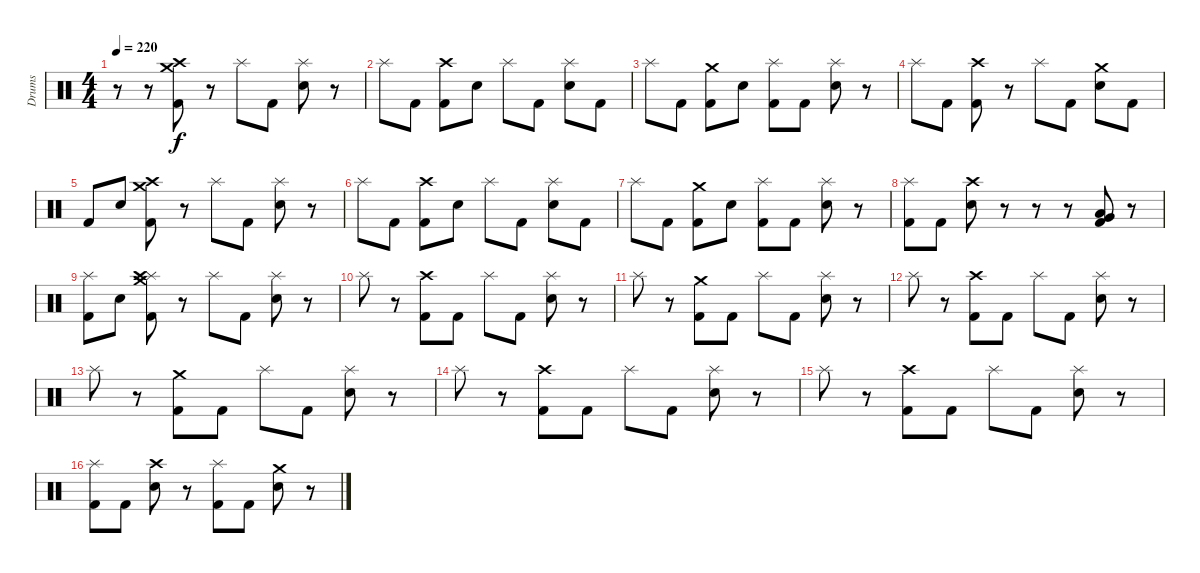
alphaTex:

\track ("Drums" "Drums") {instrument percussion}
\staff {score}
\articulation defaults
\ts (4 4)
\tempo 220
\clef neutral
\ks c
r.8{dy f} r.8 ("Crash high (hit)" "Crash medium (hit)" "Kick (hit) 2").8 r.8 "Splash (hit)".8 "Kick (hit) 2".8 ("Splash (hit)" "Electric Snare (hit)").8 r.8 |
"Splash (hit)".8 "Kick (hit) 2".8 ("Crash high (hit)" "Kick (hit) 2").8 "Electric Snare (hit)".8 "Splash (hit)".8 "Kick (hit) 2".8 ("Splash (hit)" "Electric Snare (hit)").8 "Kick (hit) 2".8 |
"Splash (hit)".8 "Kick (hit) 2".8 ("Crash medium (hit)" "Kick (hit) 2").8 "Electric Snare (hit)".8 ("Splash (hit)" "Kick (hit) 2").8 "Kick (hit) 2".8 ("Splash (hit)" "Electric Snare (hit)").8 r.8 |
"Splash (hit)".8 "Kick (hit) 2".8 ("Crash high (hit)" "Kick (hit) 2").8 r.8 "Splash (hit)".8 "Kick (hit) 2".8 ("Crash medium (hit)" "Electric Snare (hit)").8 "Kick (hit) 2".8 |
"Kick (hit) 2".8 "Electric Snare (hit)".8 ("Crash high (hit)" "Crash medium (hit)" "Kick (hit) 2").8 r.8 "Splash (hit)".8 "Kick (hit) 2".8 ("Splash (hit)" "Electric Snare (hit)").8 r.8 |
"Splash (hit)".8 "Kick (hit) 2".8 ("Crash high (hit)" "Kick (hit) 2").8 "Electric Snare (hit)".8 "Splash (hit)".8 "Kick (hit) 2".8 ("Splash (hit)" "Electric Snare (hit)").8 "Kick (hit) 2".8 |
"Splash (hit)".8 "Kick (hit) 2".8 ("Crash medium (hit)" "Kick (hit) 2").8 "Electric Snare (hit)".8 ("Splash (hit)" "Kick (hit) 2").8 "Kick (hit) 2".8 ("Splash (hit)" "Electric Snare (hit)").8 r.8 |
("Splash (hit)" "Kick (hit) 2").8 "Kick (hit) 2".8 ("Crash high (hit)" "Electric Snare (hit)").8 r.8 r.8 r.8 ("Very Low Tom (hit)" "Low Floor Tom (hit)" "Kick (hit) 2").8 r.8 |
("Splash (hit)" "Kick (hit) 2").8 "Electric Snare (hit)".8 ("Splash (hit)" "Crash high (hit)" "Crash medium (hit)" "Kick (hit) 2").8 r.8 "Splash (hit)".8 "Kick (hit) 2".8 ("Splash (hit)" "Electric Snare (hit)").8 r.8 |
"Splash (hit)".8 r.8 ("Crash high (hit)" "Kick (hit) 2").8 "Kick (hit) 2".8 "Splash (hit)".8 "Kick (hit) 2".8 ("Splash (hit)" "Electric Snare (hit)").8 r.8 |
"Splash (hit)".8 r.8 ("Crash medium (hit)" "Kick (hit) 2").8 "Kick (hit) 2".8 "Splash (hit)".8 "Kick (hit) 2".8 ("Splash (hit)" "Electric Snare (hit)").8 r.8 |
"Splash (hit)".8 r.8 ("Crash high (hit)" "Kick (hit) 2").8 "Kick (hit) 2".8 "Splash (hit)".8 "Kick (hit) 2".8 ("Splash (hit)" "Electric Snare (hit)").8 r.8 |
"Splash (hit)".8 r.8 ("Crash medium (hit)" "Kick (hit) 2").8 "Kick (hit) 2".8 "Splash (hit)".8 "Kick (hit) 2".8 ("Splash (hit)" "Electric Snare (hit)").8 r.8 |
"Splash (hit)".8 r.8 ("Crash high (hit)" "Kick (hit) 2").8 "Kick (hit) 2".8 "Splash (hit)".8 "Kick (hit) 2".8 ("Splash (hit)" "Electric Snare (hit)").8 r.8 |
"Splash (hit)".8 r.8 ("Crash high (hit)" "Kick (hit) 2").8 "Kick (hit) 2".8 "Splash (hit)".8 "Kick (hit) 2".8 ("Splash (hit)" "Electric Snare (hit)").8 r.8 |
("Splash (hit)" "Kick (hit) 2").8 "Kick (hit) 2".8 ("Crash high (hit)" "Electric Snare (hit)").8 r.8 ("Splash (hit)" "Kick (hit) 2").8 "Kick (hit) 2".8 ("Crash medium (hit)" "Electric Snare (hit)").8 r.8
